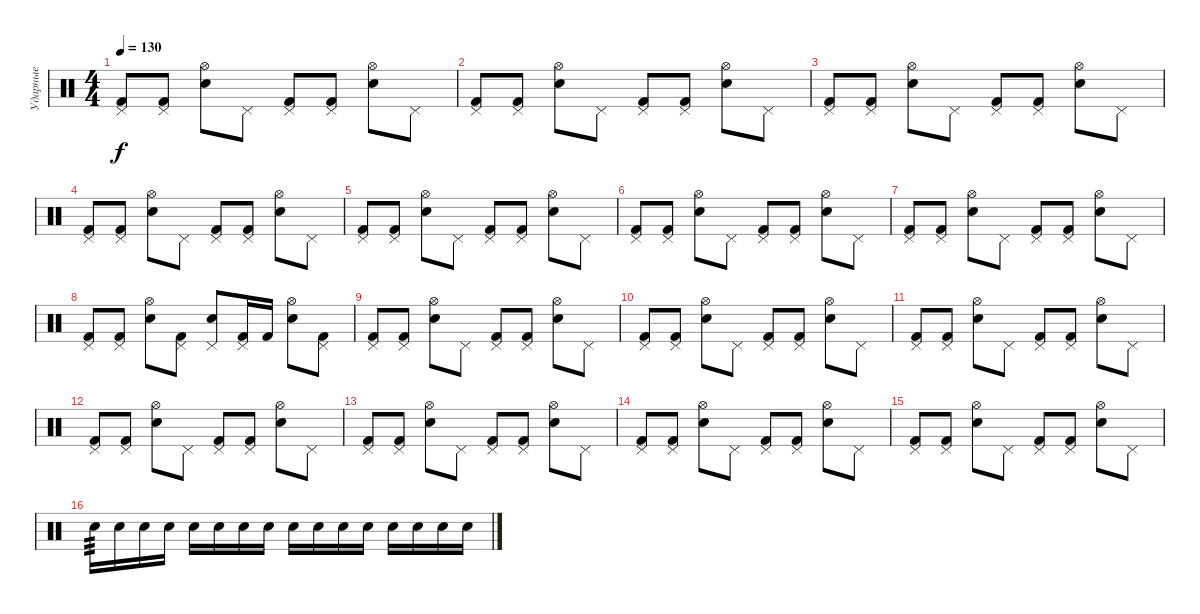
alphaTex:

\track ("Ударные" "Ударные") {instrument percussion}
\staff {score}
\articulation defaults
\ts (4 4)
\tempo 130
\clef neutral
\ks c
("Pedal Hi-Hat (hit)" "Kick (hit) 2").8{dy f} ("Pedal Hi-Hat (hit)" "Kick (hit) 2").8 ("Hi-Hat (open)" "Electric Snare (hit)").8 "Pedal Hi-Hat (hit)".8 ("Pedal Hi-Hat (hit)" "Kick (hit) 2").8 ("Pedal Hi-Hat (hit)" "Kick (hit) 2").8 ("Hi-Hat (open)" "Electric Snare (hit)").8 "Pedal Hi-Hat (hit)".8 |
("Pedal Hi-Hat (hit)" "Kick (hit) 2").8 ("Pedal Hi-Hat (hit)" "Kick (hit) 2").8 ("Hi-Hat (open)" "Electric Snare (hit)").8 "Pedal Hi-Hat (hit)".8 ("Pedal Hi-Hat (hit)" "Kick (hit) 2").8 ("Pedal Hi-Hat (hit)" "Kick (hit) 2").8 ("Hi-Hat (open)" "Electric Snare (hit)").8 "Pedal Hi-Hat (hit)".8 |
("Pedal Hi-Hat (hit)" "Kick (hit) 2").8 ("Pedal Hi-Hat (hit)" "Kick (hit) 2").8 ("Hi-Hat (open)" "Electric Snare (hit)").8 "Pedal Hi-Hat (hit)".8 ("Pedal Hi-Hat (hit)" "Kick (hit) 2").8 ("Pedal Hi-Hat (hit)" "Kick (hit) 2").8 ("Hi-Hat (open)" "Electric Snare (hit)").8 "Pedal Hi-Hat (hit)".8 |
("Pedal Hi-Hat (hit)" "Kick (hit) 2").8 ("Pedal Hi-Hat (hit)" "Kick (hit) 2").8 ("Hi-Hat (open)" "Electric Snare (hit)").8 "Pedal Hi-Hat (hit)".8 ("Pedal Hi-Hat (hit)" "Kick (hit) 2").8 ("Pedal Hi-Hat (hit)" "Kick (hit) 2").8 ("Hi-Hat (open)" "Electric Snare (hit)").8 "Pedal Hi-Hat (hit)".8 |
("Pedal Hi-Hat (hit)" "Kick (hit) 2").8 ("Pedal Hi-Hat (hit)" "Kick (hit) 2").8 ("Hi-Hat (open)" "Electric Snare (hit)").8 "Pedal Hi-Hat (hit)".8 ("Pedal Hi-Hat (hit)" "Kick (hit) 2").8 ("Pedal Hi-Hat (hit)" "Kick (hit) 2").8 ("Hi-Hat (open)" "Electric Snare (hit)").8 "Pedal Hi-Hat (hit)".8 |
("Pedal Hi-Hat (hit)" "Kick (hit) 2").8 ("Pedal Hi-Hat (hit)" "Kick (hit) 2").8 ("Hi-Hat (open)" "Electric Snare (hit)").8 "Pedal Hi-Hat (hit)".8 ("Pedal Hi-Hat (hit)" "Kick (hit) 2").8 ("Pedal Hi-Hat (hit)" "Kick (hit) 2").8 ("Hi-Hat (open)" "Electric Snare (hit)").8 "Pedal Hi-Hat (hit)".8 |
("Pedal Hi-Hat (hit)" "Kick (hit) 2").8 ("Pedal Hi-Hat (hit)" "Kick (hit) 2").8 ("Hi-Hat (open)" "Electric Snare (hit)").8 "Pedal Hi-Hat (hit)".8 ("Pedal Hi-Hat (hit)" "Kick (hit) 2").8 ("Pedal Hi-Hat (hit)" "Kick (hit) 2").8 ("Hi-Hat (open)" "Electric Snare (hit)").8 "Pedal Hi-Hat (hit)".8 |
("Pedal Hi-Hat (hit)" "Kick (hit) 2").8 ("Pedal Hi-Hat (hit)" "Kick (hit) 2").8 ("Hi-Hat (open)" "Electric Snare (hit)").8 ("Pedal Hi-Hat (hit)" "Kick (hit) 2").8 ("Pedal Hi-Hat (hit)" "Electric Snare (hit)").8 ("Pedal Hi-Hat (hit)" "Kick (hit) 2").16 "Kick (hit) 2".16 ("Hi-Hat (open)" "Electric Snare (hit)").8 ("Pedal Hi-Hat (hit)" "Kick (hit) 2").8 |
("Pedal Hi-Hat (hit)" "Kick (hit) 2").8 ("Pedal Hi-Hat (hit)" "Kick (hit) 2").8 ("Hi-Hat (open)" "Electric Snare (hit)").8 "Pedal Hi-Hat (hit)".8 ("Pedal Hi-Hat (hit)" "Kick (hit) 2").8 ("Pedal Hi-Hat (hit)" "Kick (hit) 2").8 ("Hi-Hat (open)" "Electric Snare (hit)").8 "Pedal Hi-Hat (hit)".8 |
("Pedal Hi-Hat (hit)" "Kick (hit) 2").8 ("Pedal Hi-Hat (hit)" "Kick (hit) 2").8 ("Hi-Hat (open)" "Electric Snare (hit)").8 "Pedal Hi-Hat (hit)".8 ("Pedal Hi-Hat (hit)" "Kick (hit) 2").8 ("Pedal Hi-Hat (hit)" "Kick (hit) 2").8 ("Hi-Hat (open)" "Electric Snare (hit)").8 "Pedal Hi-Hat (hit)".8 |
("Pedal Hi-Hat (hit)" "Kick (hit) 2").8 ("Pedal Hi-Hat (hit)" "Kick (hit) 2").8 ("Hi-Hat (open)" "Electric Snare (hit)").8 "Pedal Hi-Hat (hit)".8 ("Pedal Hi-Hat (hit)" "Kick (hit) 2").8 ("Pedal Hi-Hat (hit)" "Kick (hit) 2").8 ("Hi-Hat (open)" "Electric Snare (hit)").8 "Pedal Hi-Hat (hit)".8 |
("Pedal Hi-Hat (hit)" "Kick (hit) 2").8 ("Pedal Hi-Hat (hit)" "Kick (hit) 2").8 ("Hi-Hat (open)" "Electric Snare (hit)").8 "Pedal Hi-Hat (hit)".8 ("Pedal Hi-Hat (hit)" "Kick (hit) 2").8 ("Pedal Hi-Hat (hit)" "Kick (hit) 2").8 ("Hi-Hat (open)" "Electric Snare (hit)").8 "Pedal Hi-Hat (hit)".8 |
("Pedal Hi-Hat (hit)" "Kick (hit) 2").8 ("Pedal Hi-Hat (hit)" "Kick (hit) 2").8 ("Hi-Hat (open)" "Electric Snare (hit)").8 "Pedal Hi-Hat (hit)".8 ("Pedal Hi-Hat (hit)" "Kick (hit) 2").8 ("Pedal Hi-Hat (hit)" "Kick (hit) 2").8 ("Hi-Hat (open)" "Electric Snare (hit)").8 "Pedal Hi-Hat (hit)".8 |
("Pedal Hi-Hat (hit)" "Kick (hit) 2").8 ("Pedal Hi-Hat (hit)" "Kick (hit) 2").8 ("Hi-Hat (open)" "Electric Snare (hit)").8 "Pedal Hi-Hat (hit)".8 ("Pedal Hi-Hat (hit)" "Kick (hit) 2").8 ("Pedal Hi-Hat (hit)" "Kick (hit) 2").8 ("Hi-Hat (open)" "Electric Snare (hit)").8 "Pedal Hi-Hat (hit)".8 |
("Pedal Hi-Hat (hit)" "Kick (hit) 2").8 ("Pedal Hi-Hat (hit)" "Kick (hit) 2").8 ("Hi-Hat (open)" "Electric Snare (hit)").8 "Pedal Hi-Hat (hit)".8 ("Pedal Hi-Hat (hit)" "Kick (hit) 2").8 ("Pedal Hi-Hat (hit)" "Kick (hit) 2").8 ("Hi-Hat (open)" "Electric Snare (hit)").8 "Pedal Hi-Hat (hit)".8 |
"Electric Snare (hit)".16{tp 3} "Electric Snare (hit)".16 "Electric Snare (hit)".16 "Electric Snare (hit)".16 "Electric Snare (hit)".16 "Electric Snare (hit)".16 "Electric Snare (hit)".16 "Electric Snare (hit)".16 "Electric Snare (hit)".16 "Electric Snare (hit)".16 "Electric Snare (hit)".16 "Electric Snare (hit)".16 "Electric Snare (hit)".16 "Electric Snare (hit)".16 "Electric Snare (hit)".16 "Electric Snare (hit)".16
